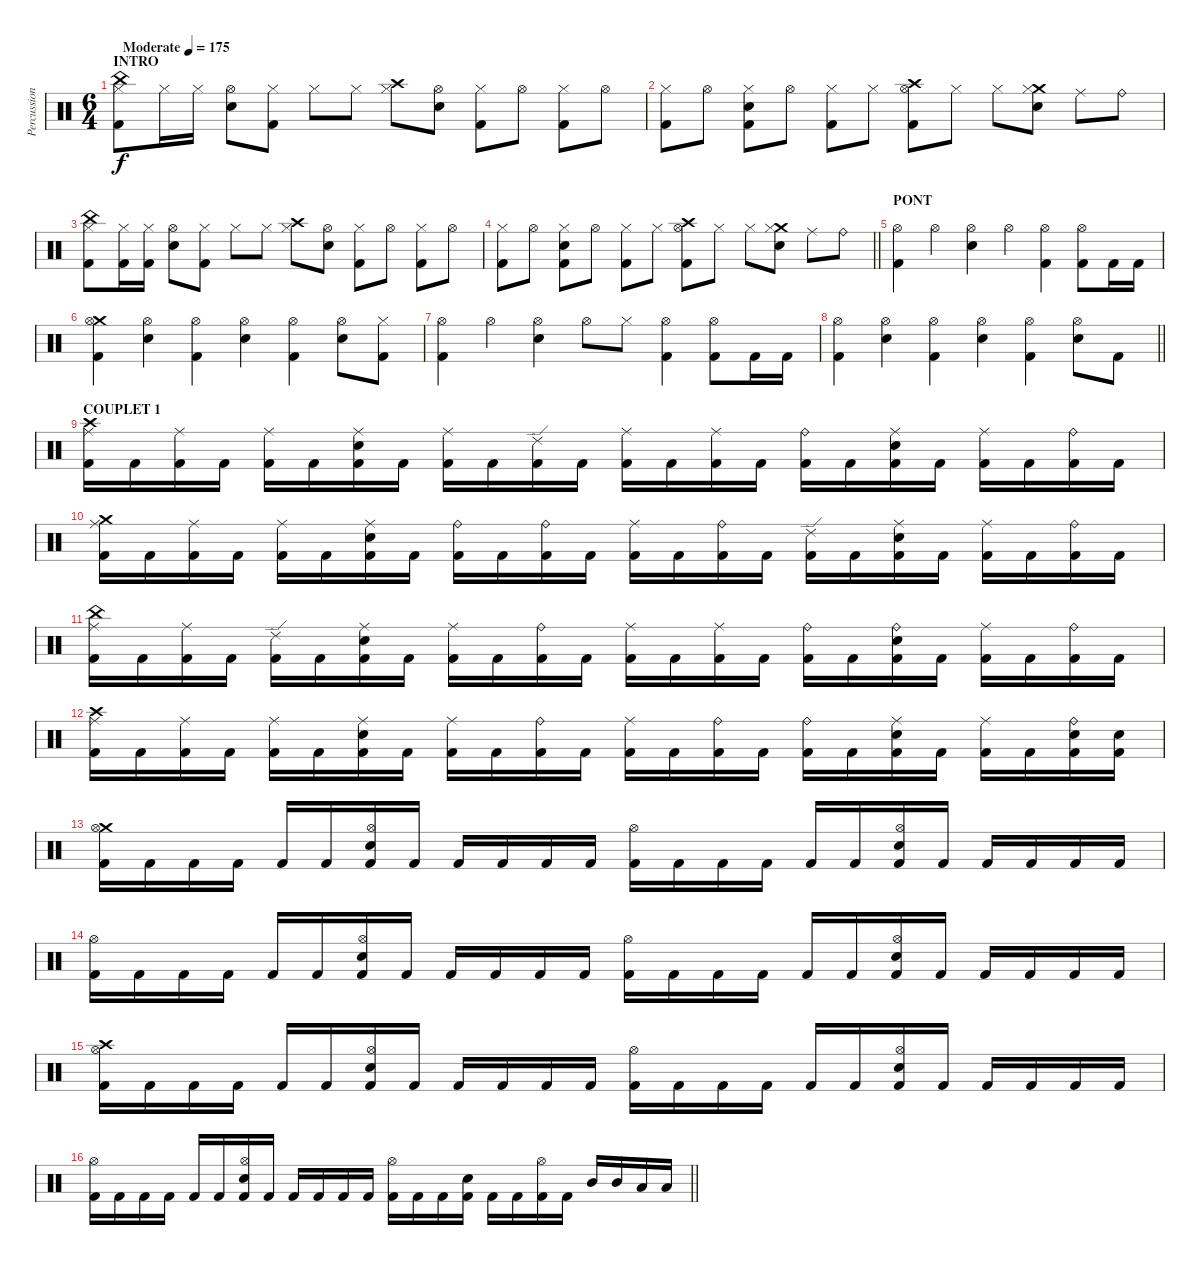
\track ("Percussions" "Percussion") {instrument percussion}
\staff {score}
\articulation defaults
\ts (6 4)
\section ("" "INTRO")
\tempo (175 "Moderate")
\clef neutral
\ks c
("China (hit)" "Hi-Hat (closed)" "Kick (hit) 2").8{dy f} "Hi-Hat (closed)".16 "Hi-Hat (closed)".16 ("Hi-Hat (open)" "Electric Snare (hit)").8 ("Hi-Hat (closed)" "Kick (hit) 2").8 "Hi-Hat (closed)".8 "Hi-Hat (closed)".8 ("Crash high (hit)" "Hi-Hat (closed)").8 ("Hi-Hat (open)" "Electric Snare (hit)").8 ("Hi-Hat (closed)" "Kick (hit) 2").8 "Hi-Hat (open)".8 ("Hi-Hat (closed)" "Kick (hit) 2").8 "Hi-Hat (open)".8 |
("Hi-Hat (closed)" "Kick (hit) 2").8 "Hi-Hat (open)".8 ("Hi-Hat (closed)" "Electric Snare (hit)" "Kick (hit) 2").8 "Hi-Hat (open)".8 ("Hi-Hat (closed)" "Kick (hit) 2").8 "Hi-Hat (closed)".8 ("Crash high (hit)" "Hi-Hat (open)" "Kick (hit) 2").8 "Hi-Hat (closed)".8 "Hi-Hat (closed)".8 ("Crash medium (hit)" "Hi-Hat (closed)" "Electric Snare (hit)").8 "Ride (middle)".8 "Ride (bell)".8 |
("China (hit)" "Hi-Hat (closed)" "Kick (hit) 2").8 ("Hi-Hat (closed)" "Kick (hit) 2").16 ("Hi-Hat (closed)" "Kick (hit) 2").16 ("Hi-Hat (open)" "Electric Snare (hit)").8 ("Hi-Hat (closed)" "Kick (hit) 2").8 "Hi-Hat (closed)".8 "Hi-Hat (closed)".8 ("Crash high (hit)" "Hi-Hat (closed)").8 ("Hi-Hat (open)" "Electric Snare (hit)").8 ("Hi-Hat (closed)" "Kick (hit) 2").8 "Hi-Hat (open)".8 ("Hi-Hat (closed)" "Kick (hit) 2").8 "Hi-Hat (open)".8 |
\barLineRight lightlight
("Hi-Hat (closed)" "Kick (hit) 2").8 "Hi-Hat (open)".8 ("Hi-Hat (closed)" "Electric Snare (hit)" "Kick (hit) 2").8 "Hi-Hat (open)".8 ("Hi-Hat (closed)" "Kick (hit) 2").8 "Hi-Hat (closed)".8 ("Crash high (hit)" "Hi-Hat (open)" "Kick (hit) 2").8 "Hi-Hat (closed)".8 "Hi-Hat (closed)".8 ("Crash medium (hit)" "Hi-Hat (closed)" "Electric Snare (hit)").8 "Ride (middle)".8 "Ride (bell)".8 |
\section ("" "PONT")
("Hi-Hat (open)" "Kick (hit) 2").4 "Hi-Hat (open)".4 ("Hi-Hat (open)" "Electric Snare (hit)").4 "Hi-Hat (open)".4 ("Hi-Hat (open)" "Kick (hit) 2").4 ("Hi-Hat (open)" "Kick (hit) 2").8 "Kick (hit) 2".16 "Kick (hit) 2".16 |
("Crash medium (hit)" "Hi-Hat (open)" "Kick (hit) 2").4 ("Hi-Hat (open)" "Electric Snare (hit)").4 ("Hi-Hat (open)" "Kick (hit) 2").4 ("Hi-Hat (open)" "Electric Snare (hit)").4 ("Hi-Hat (open)" "Kick (hit) 2").4 ("Hi-Hat (open)" "Electric Snare (hit)").8 ("Hi-Hat (closed)" "Kick (hit) 2").8 |
("Hi-Hat (open)" "Kick (hit) 2").4 "Hi-Hat (open)".4 ("Hi-Hat (open)" "Electric Snare (hit)").4 "Hi-Hat (open)".8 "Hi-Hat (closed)".8 ("Hi-Hat (open)" "Kick (hit) 2").4 ("Hi-Hat (open)" "Kick (hit) 2").8 "Kick (hit) 2".16 "Kick (hit) 2".16 |
\barLineRight lightlight
("Hi-Hat (open)" "Kick (hit) 2").4 ("Hi-Hat (open)" "Electric Snare (hit)").4 ("Hi-Hat (open)" "Kick (hit) 2").4 ("Hi-Hat (open)" "Electric Snare (hit)").4 ("Hi-Hat (open)" "Kick (hit) 2").4 ("Hi-Hat (open)" "Electric Snare (hit)").8 "Kick (hit) 2".8 |
\section ("" "COUPLET 1")
("Crash high (hit)" "Ride (middle)" "Kick (hit) 2").16 "Kick (hit) 2".16 ("Ride (middle)" "Kick (hit) 2").16 "Kick (hit) 2".16 ("Ride (middle)" "Kick (hit) 2").16 "Kick (hit) 2".16 ("Ride (middle)" "Electric Snare (hit)" "Kick (hit) 2").16 "Kick (hit) 2".16 ("Ride (middle)" "Kick (hit) 2").16 "Kick (hit) 2".16 ("Ride (edge) 2" "Kick (hit) 2").16 "Kick (hit) 2".16 ("Ride (middle)" "Kick (hit) 2").16 "Kick (hit) 2".16 ("Ride (middle)" "Kick (hit) 2").16 "Kick (hit) 2".16 ("Ride (bell)" "Kick (hit) 2").16 "Kick (hit) 2".16 ("Ride (middle)" "Electric Snare (hit)" "Kick (hit) 2").16 "Kick (hit) 2".16 ("Ride (middle)" "Kick (hit) 2").16 "Kick (hit) 2".16 ("Ride (bell)" "Kick (hit) 2").16 "Kick (hit) 2".16 |
("Crash medium (hit)" "Ride (middle)" "Kick (hit) 2").16 "Kick (hit) 2".16 ("Ride (middle)" "Kick (hit) 2").16 "Kick (hit) 2".16 ("Ride (middle)" "Kick (hit) 2").16 "Kick (hit) 2".16 ("Ride (middle)" "Electric Snare (hit)" "Kick (hit) 2").16 "Kick (hit) 2".16 ("Ride (bell)" "Kick (hit) 2").16 "Kick (hit) 2".16 ("Ride (bell)" "Kick (hit) 2").16 "Kick (hit) 2".16 ("Ride (middle)" "Kick (hit) 2").16 "Kick (hit) 2".16 ("Ride (bell)" "Kick (hit) 2").16 "Kick (hit) 2".16 ("Ride (edge) 2" "Kick (hit) 2").16 "Kick (hit) 2".16 ("Ride (middle)" "Electric Snare (hit)" "Kick (hit) 2").16 "Kick (hit) 2".16 ("Ride (middle)" "Kick (hit) 2").16 "Kick (hit) 2".16 ("Ride (bell)" "Kick (hit) 2").16 "Kick (hit) 2".16 |
("China (hit)" "Ride (middle)" "Kick (hit) 2").16 "Kick (hit) 2".16 ("Ride (middle)" "Kick (hit) 2").16 "Kick (hit) 2".16 ("Ride (edge) 2" "Kick (hit) 2").16 "Kick (hit) 2".16 ("Ride (middle)" "Electric Snare (hit)" "Kick (hit) 2").16 "Kick (hit) 2".16 ("Ride (middle)" "Kick (hit) 2").16 "Kick (hit) 2".16 ("Ride (bell)" "Kick (hit) 2").16 "Kick (hit) 2".16 ("Ride (middle)" "Kick (hit) 2").16 "Kick (hit) 2".16 ("Ride (middle)" "Kick (hit) 2").16 "Kick (hit) 2".16 ("Ride (bell)" "Kick (hit) 2").16 "Kick (hit) 2".16 ("Ride (bell)" "Electric Snare (hit)" "Kick (hit) 2").16 "Kick (hit) 2".16 ("Ride (middle)" "Kick (hit) 2").16 "Kick (hit) 2".16 ("Ride (bell)" "Kick (hit) 2").16 "Kick (hit) 2".16 |
("Crash high (hit)" "Ride (middle)" "Kick (hit) 2").16 "Kick (hit) 2".16 ("Ride (middle)" "Kick (hit) 2").16 "Kick (hit) 2".16 ("Ride (middle)" "Kick (hit) 2").16 "Kick (hit) 2".16 ("Ride (middle)" "Electric Snare (hit)" "Kick (hit) 2").16 "Kick (hit) 2".16 ("Ride (middle)" "Kick (hit) 2").16 "Kick (hit) 2".16 ("Ride (bell)" "Kick (hit) 2").16 "Kick (hit) 2".16 ("Ride (middle)" "Kick (hit) 2").16 "Kick (hit) 2".16 ("Ride (bell)" "Kick (hit) 2").16 "Kick (hit) 2".16 ("Ride (bell)" "Kick (hit) 2").16 "Kick (hit) 2".16 ("Ride (middle)" "Electric Snare (hit)" "Kick (hit) 2").16 "Kick (hit) 2".16 ("Ride (middle)" "Kick (hit) 2").16 "Kick (hit) 2".16 ("Ride (bell)" "Electric Snare (hit)" "Kick (hit) 2").16 ("Electric Snare (hit)" "Kick (hit) 2").16 |
("Crash medium (hit)" "Hi-Hat (open)" "Kick (hit) 2").16 "Kick (hit) 2".16 "Kick (hit) 2".16 "Kick (hit) 2".16 "Kick (hit) 2".16 "Kick (hit) 2".16 ("Hi-Hat (open)" "Electric Snare (hit)" "Kick (hit) 2").16 "Kick (hit) 2".16 "Kick (hit) 2".16 "Kick (hit) 2".16 "Kick (hit) 2".16 "Kick (hit) 2".16 ("Hi-Hat (open)" "Kick (hit) 2").16 "Kick (hit) 2".16 "Kick (hit) 2".16 "Kick (hit) 2".16 "Kick (hit) 2".16 "Kick (hit) 2".16 ("Hi-Hat (open)" "Electric Snare (hit)" "Kick (hit) 2").16 "Kick (hit) 2".16 "Kick (hit) 2".16 "Kick (hit) 2".16 "Kick (hit) 2".16 "Kick (hit) 2".16 |
("Hi-Hat (open)" "Kick (hit) 2").16 "Kick (hit) 2".16 "Kick (hit) 2".16 "Kick (hit) 2".16 "Kick (hit) 2".16 "Kick (hit) 2".16 ("Hi-Hat (open)" "Electric Snare (hit)" "Kick (hit) 2").16 "Kick (hit) 2".16 "Kick (hit) 2".16 "Kick (hit) 2".16 "Kick (hit) 2".16 "Kick (hit) 2".16 ("Hi-Hat (open)" "Kick (hit) 2").16 "Kick (hit) 2".16 "Kick (hit) 2".16 "Kick (hit) 2".16 "Kick (hit) 2".16 "Kick (hit) 2".16 ("Hi-Hat (open)" "Electric Snare (hit)" "Kick (hit) 2").16 "Kick (hit) 2".16 "Kick (hit) 2".16 "Kick (hit) 2".16 "Kick (hit) 2".16 "Kick (hit) 2".16 |
("Crash high (hit)" "Hi-Hat (open)" "Kick (hit) 2").16 "Kick (hit) 2".16 "Kick (hit) 2".16 "Kick (hit) 2".16 "Kick (hit) 2".16 "Kick (hit) 2".16 ("Hi-Hat (open)" "Electric Snare (hit)" "Kick (hit) 2").16 "Kick (hit) 2".16 "Kick (hit) 2".16 "Kick (hit) 2".16 "Kick (hit) 2".16 "Kick (hit) 2".16 ("Hi-Hat (open)" "Kick (hit) 2").16 "Kick (hit) 2".16 "Kick (hit) 2".16 "Kick (hit) 2".16 "Kick (hit) 2".16 "Kick (hit) 2".16 ("Hi-Hat (open)" "Electric Snare (hit)" "Kick (hit) 2").16 "Kick (hit) 2".16 "Kick (hit) 2".16 "Kick (hit) 2".16 "Kick (hit) 2".16 "Kick (hit) 2".16 |
\barLineRight lightlight
("Hi-Hat (open)" "Kick (hit) 2").16 "Kick (hit) 2".16 "Kick (hit) 2".16 "Kick (hit) 2".16 "Kick (hit) 2".16 "Kick (hit) 2".16 ("Hi-Hat (open)" "Electric Snare (hit)" "Kick (hit) 2").16 "Kick (hit) 2".16 "Kick (hit) 2".16 "Kick (hit) 2".16 "Kick (hit) 2".16 "Kick (hit) 2".16 ("Hi-Hat (open)" "Kick (hit) 2").16 "Kick (hit) 2".16 "Kick (hit) 2".16 ("Electric Snare (hit)" "Kick (hit) 2").16 "Kick (hit) 2".16 "Kick (hit) 2".16 ("Hi-Hat (open)" "Kick (hit) 2").16 "Kick (hit) 2".16 "Mid Tom (hit)".16 "Mid Tom (hit)".16 "Low Tom (hit)".16 "Low Tom (hit)".16
